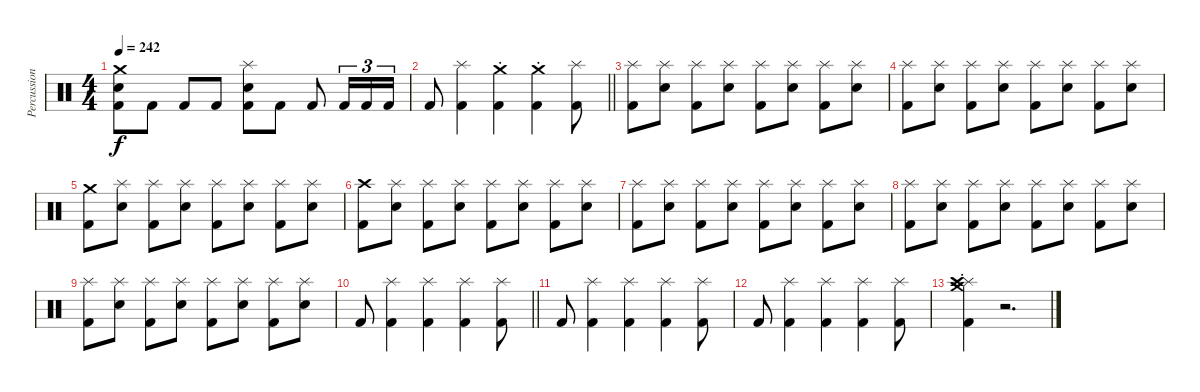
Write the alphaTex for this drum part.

\track ("Percussion" "Percussion") {instrument percussion}
\staff {score}
\articulation defaults
\ts (4 4)
\tempo 242
\clef neutral
\ks c
("Crash medium (hit)" "Snare (hit) 2" "Kick (hit) 2").8{dy f} "Kick (hit) 2".8 "Kick (hit) 2".8 "Kick (hit) 2".8 ("Splash (hit)" "Snare (hit) 2" "Kick (hit) 2").8 "Kick (hit) 2".8 "Kick (hit) 2".8 "Kick (hit) 2".16{tu (3 2)} "Kick (hit) 2".16{tu (3 2)} "Kick (hit) 2".16{tu (3 2)} |
\barLineRight lightlight "Kick (hit) 2".8
("Splash (hit)" "Kick (hit) 2").4 ("Crash medium (hit)"{st} "Kick (hit) 2").4 ("Crash medium (hit)"{st} "Kick (hit) 2").4 ("Splash (hit)" "Kick (hit) 2").8 |
("Splash (hit)" "Kick (hit) 2").8 ("Splash (hit)" "Snare (hit) 2").8 ("Splash (hit)" "Kick (hit) 2").8 ("Splash (hit)" "Snare (hit) 2").8 ("Splash (hit)" "Kick (hit) 2").8 ("Splash (hit)" "Snare (hit) 2").8 ("Splash (hit)" "Kick (hit) 2").8 ("Splash (hit)" "Snare (hit) 2").8 |
("Splash (hit)" "Kick (hit) 2").8 ("Splash (hit)" "Snare (hit) 2").8 ("Splash (hit)" "Kick (hit) 2").8 ("Splash (hit)" "Snare (hit) 2").8 ("Splash (hit)" "Kick (hit) 2").8 ("Splash (hit)" "Snare (hit) 2").8 ("Splash (hit)" "Kick (hit) 2").8 ("Splash (hit)" "Snare (hit) 2").8 |
("Crash medium (hit)" "Kick (hit) 2").8 ("Splash (hit)" "Snare (hit) 2").8 ("Splash (hit)" "Kick (hit) 2").8 ("Splash (hit)" "Snare (hit) 2").8 ("Splash (hit)" "Kick (hit) 2").8 ("Splash (hit)" "Snare (hit) 2").8 ("Splash (hit)" "Kick (hit) 2").8 ("Splash (hit)" "Snare (hit) 2").8 |
("Crash high (hit)" "Kick (hit) 2").8 ("Splash (hit)" "Snare (hit) 2").8 ("Splash (hit)" "Kick (hit) 2").8 ("Splash (hit)" "Snare (hit) 2").8 ("Splash (hit)" "Kick (hit) 2").8 ("Splash (hit)" "Snare (hit) 2").8 ("Splash (hit)" "Kick (hit) 2").8 ("Splash (hit)" "Snare (hit) 2").8 |
("Splash (hit)" "Kick (hit) 2").8 ("Splash (hit)" "Snare (hit) 2").8 ("Splash (hit)" "Kick (hit) 2").8 ("Splash (hit)" "Snare (hit) 2").8 ("Splash (hit)" "Kick (hit) 2").8 ("Splash (hit)" "Snare (hit) 2").8 ("Splash (hit)" "Kick (hit) 2").8 ("Splash (hit)" "Snare (hit) 2").8 |
("Splash (hit)" "Kick (hit) 2").8 ("Splash (hit)" "Snare (hit) 2").8 ("Splash (hit)" "Kick (hit) 2").8 ("Splash (hit)" "Snare (hit) 2").8 ("Splash (hit)" "Kick (hit) 2").8 ("Splash (hit)" "Snare (hit) 2").8 ("Splash (hit)" "Kick (hit) 2").8 ("Splash (hit)" "Snare (hit) 2").8 |
("Splash (hit)" "Kick (hit) 2").8 ("Splash (hit)" "Snare (hit) 2").8 ("Splash (hit)" "Kick (hit) 2").8 ("Splash (hit)" "Snare (hit) 2").8 ("Splash (hit)" "Kick (hit) 2").8 ("Splash (hit)" "Snare (hit) 2").8 ("Splash (hit)" "Kick (hit) 2").8 ("Splash (hit)" "Snare (hit) 2").8 |
\barLineRight lightlight "Kick (hit) 2".8
("Splash (hit)" "Kick (hit) 2").4 ("Splash (hit)" "Kick (hit) 2").4 ("Splash (hit)" "Kick (hit) 2").4 ("Splash (hit)" "Kick (hit) 2").8 |
"Kick (hit) 2".8 ("Splash (hit)" "Kick (hit) 2").4 ("Splash (hit)" "Kick (hit) 2").4 ("Splash (hit)" "Kick (hit) 2").4 ("Splash (hit)" "Kick (hit) 2").8 |
"Kick (hit) 2".8 ("Splash (hit)" "Kick (hit) 2").4 ("Splash (hit)" "Kick (hit) 2").4 ("Splash (hit)" "Kick (hit) 2").4 ("Splash (hit)" "Kick (hit) 2").8 |
("Splash (hit)"{st} "Crash medium (hit)"{st} "Crash high (hit)"{st} "Kick (hit) 2").4 r.2{d}
